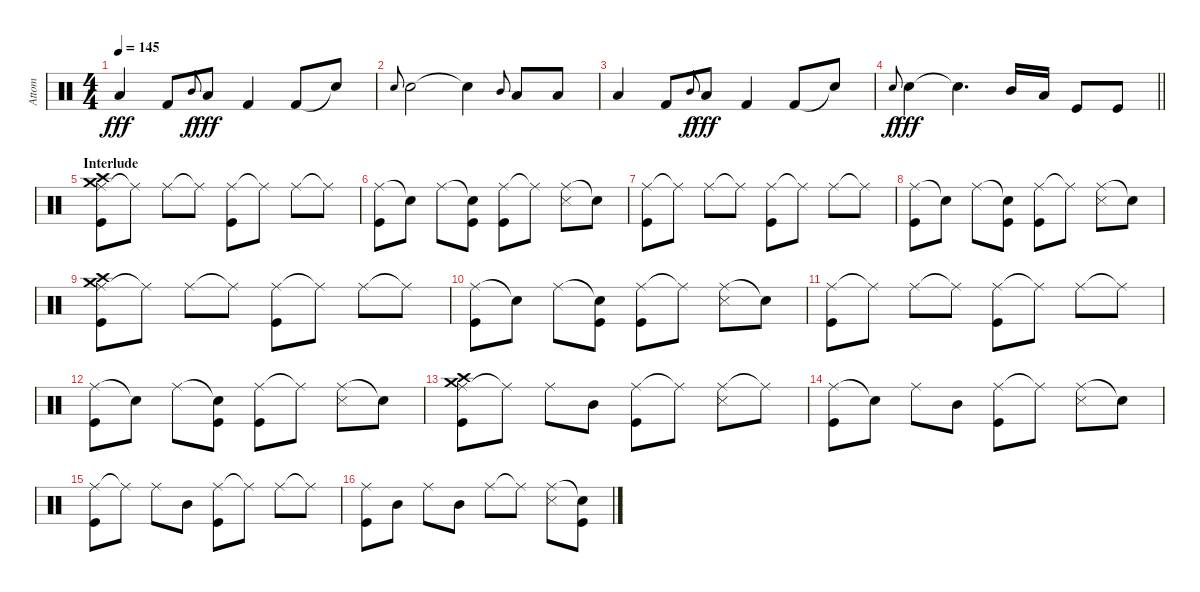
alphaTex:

\track ("Attom" "Attom") {instrument percussion}
\staff {score}
\articulation defaults
\ts (4 4)
\tempo 145
\clef neutral
\ks c "Low Floor Tom (hit)".4{dy fff} "Kick (hit) 2".8 "Mid Tom (hit)".8{gr onbeat dy f} "Low Floor Tom (hit)".8{dy fff} "Kick (hit) 2".4 "Kick (hit) 2".8 "Snare (hit)"{t}.8
|
"Snare (hit) 2".8{gr onbeat} "Snare (hit) 2".2 "Snare (hit)"{t}.4 "Mid Tom (hit)".8{gr onbeat} "Low Floor Tom (hit)".8 "Low Floor Tom (hit)".8 |
"Low Floor Tom (hit)".4 "Kick (hit) 2".8 "Mid Tom (hit)".8{gr onbeat dy f} "Low Floor Tom (hit)".8{dy fff} "Kick (hit) 2".4 "Kick (hit) 2".8 "Snare (hit)"{t}.8 |
\barLineRight lightlight "Snare (hit) 2".8{gr onbeat dy f} "Snare (hit) 2".4{dy fff} "Snare (hit)"{t}.4{d} "Mid Tom (hit)".16 "Low Floor Tom (hit)".16 "Kick (hit)".8 "Kick (hit)".8
|
\section ("" "Interlude")
("Ride (middle)" "Crash medium (hit)" "Crash high (hit)" "Kick (hit)").8 "Ride (middle)"{t}.8 "Ride (middle)".8 "Ride (middle)"{t}.8 ("Ride (middle)" "Kick (hit)").8 "Ride (middle)"{t}.8 "Ride (middle)".8 "Ride (middle)"{t}.8 |
("Ride (middle)" "Kick (hit)").8 "Snare (hit)"{t}.8 "Ride (middle)".8 ("Snare (hit)"{t} "Kick (hit)").8 ("Ride (middle)" "Kick (hit)").8 "Ride (middle)"{t}.8 ("Ride (middle)" "Snare (side stick) 3").8 "Snare (hit)"{t}.8 |
("Ride (middle)" "Kick (hit)").8 "Ride (middle)"{t}.8 "Ride (middle)".8 "Ride (middle)"{t}.8 ("Ride (middle)" "Kick (hit)").8 "Ride (middle)"{t}.8 "Ride (middle)".8 "Ride (middle)"{t}.8 |
("Ride (middle)" "Kick (hit)").8 "Snare (hit)"{t}.8 "Ride (middle)".8 ("Snare (hit)"{t} "Kick (hit)").8 ("Ride (middle)" "Kick (hit)").8 "Ride (middle)"{t}.8 ("Ride (middle)" "Snare (side stick) 3").8 "Snare (hit)"{t}.8 |
("Ride (middle)" "Crash medium (hit)" "Crash high (hit)" "Kick (hit)").8 "Ride (middle)"{t}.8 "Ride (middle)".8 "Ride (middle)"{t}.8 ("Ride (middle)" "Kick (hit)").8 "Ride (middle)"{t}.8 "Ride (middle)".8 "Ride (middle)"{t}.8 |
("Ride (middle)" "Kick (hit)").8 "Snare (hit)"{t}.8 "Ride (middle)".8 ("Snare (hit)"{t} "Kick (hit)").8 ("Ride (middle)" "Kick (hit)").8 "Ride (middle)"{t}.8 ("Ride (middle)" "Snare (side stick) 3").8 "Snare (hit)"{t}.8 |
("Ride (middle)" "Kick (hit)").8 "Ride (middle)"{t}.8 "Ride (middle)".8 "Ride (middle)"{t}.8 ("Ride (middle)" "Kick (hit)").8 "Ride (middle)"{t}.8 "Ride (middle)".8 "Ride (middle)"{t}.8 |
("Ride (middle)" "Kick (hit)").8 "Snare (hit)"{t}.8 "Ride (middle)".8 ("Snare (hit)"{t} "Kick (hit)").8 ("Ride (middle)" "Kick (hit)").8 "Ride (middle)"{t}.8 ("Ride (middle)" "Snare (side stick) 3").8 "Snare (hit)"{t}.8 |
("Ride (middle)" "Crash medium (hit)" "Crash high (hit)" "Kick (hit)").8 "Ride (middle)"{t}.8 "Ride (middle)".8 "Mid Tom (hit)".8 ("Ride (middle)" "Kick (hit)").8 "Ride (middle)"{t}.8 ("Ride (middle)" "Snare (side stick) 3").8 "Ride (middle)"{t}.8 |
("Ride (middle)" "Kick (hit)").8 "Snare (hit)"{t}.8 "Ride (middle)".8 "Mid Tom (hit)".8 ("Ride (middle)" "Kick (hit)").8 "Ride (middle)"{t}.8 ("Ride (middle)" "Snare (side stick) 3").8 "Snare (hit)"{t}.8 |
("Ride (middle)" "Kick (hit)").8 "Ride (middle)"{t}.8 "Ride (middle)".8 "Mid Tom (hit)".8 ("Ride (middle)" "Kick (hit)").8 "Ride (middle)"{t}.8 "Ride (middle)".8 "Ride (middle)"{t}.8 |
("Ride (middle)" "Kick (hit)").8 "Mid Tom (hit)".8 "Ride (middle)".8 "Mid Tom (hit)".8 "Ride (middle)".8 "Ride (middle)"{t}.8 ("Ride (middle)" "Snare (side stick) 3").8 ("Snare (hit)"{t} "Kick (hit)").8
